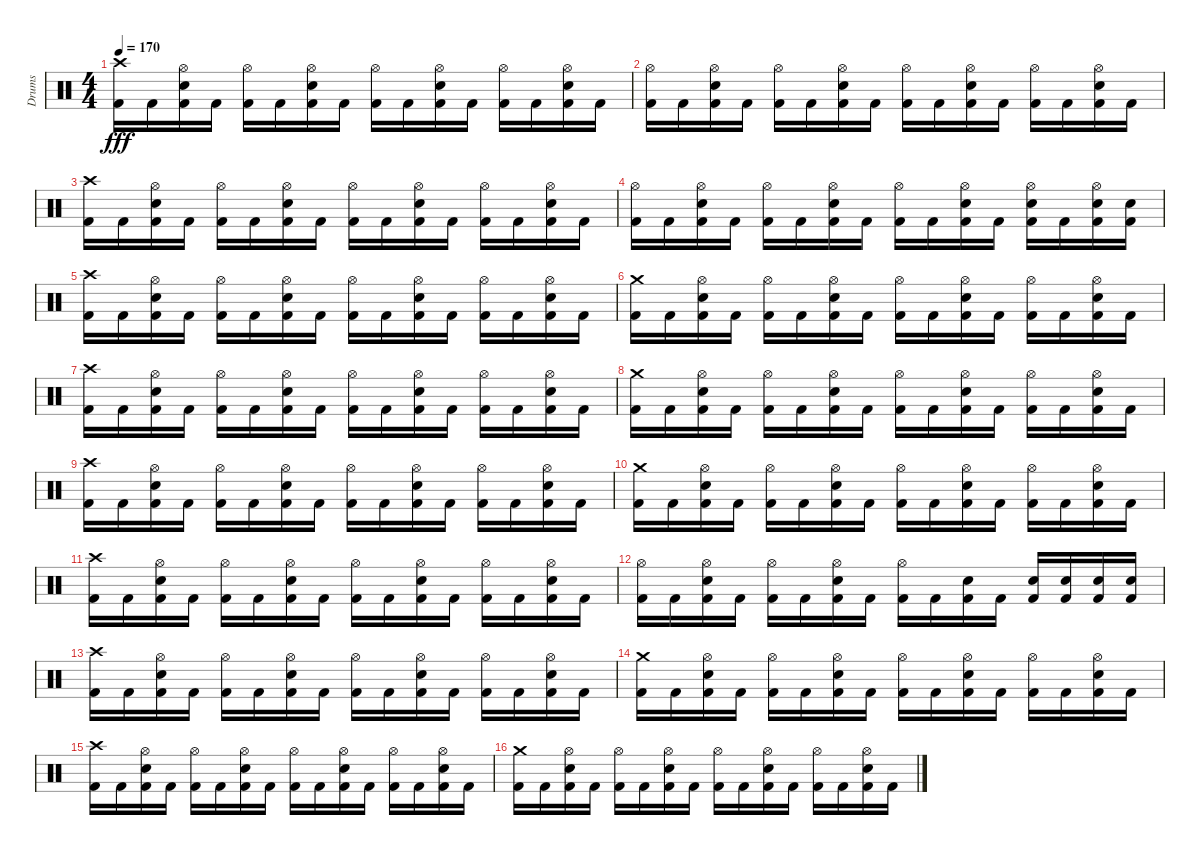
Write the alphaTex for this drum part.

\track ("Drums" "Drums") {instrument percussion}
\staff {score}
\articulation defaults
\ts (4 4)
\tempo 170
\clef neutral
\ks c
("Crash high (hit)" "Kick (hit) 2").16{dy fff} "Kick (hit) 2".16 ("Snare (hit) 2" "Hi-Hat (open)" "Kick (hit) 2").16 "Kick (hit) 2".16 ("Hi-Hat (open)" "Kick (hit) 2").16 "Kick (hit) 2".16 ("Snare (hit) 2" "Hi-Hat (open)" "Kick (hit) 2").16 "Kick (hit) 2".16 ("Hi-Hat (open)" "Kick (hit) 2").16 "Kick (hit) 2".16 ("Snare (hit) 2" "Hi-Hat (open)" "Kick (hit) 2").16 "Kick (hit) 2".16 ("Hi-Hat (open)" "Kick (hit) 2").16 "Kick (hit) 2".16 ("Snare (hit) 2" "Hi-Hat (open)" "Kick (hit) 2").16 "Kick (hit) 2".16 |
("Hi-Hat (open)" "Kick (hit) 2").16 "Kick (hit) 2".16 ("Kick (hit) 2" "Snare (hit) 2" "Hi-Hat (open)").16 "Kick (hit) 2".16 ("Kick (hit) 2" "Hi-Hat (open)").16 "Kick (hit) 2".16 ("Kick (hit) 2" "Snare (hit) 2" "Hi-Hat (open)").16 "Kick (hit) 2".16 ("Kick (hit) 2" "Hi-Hat (open)").16 "Kick (hit) 2".16 ("Kick (hit) 2" "Snare (hit) 2" "Hi-Hat (open)").16 "Kick (hit) 2".16 ("Kick (hit) 2" "Hi-Hat (open)").16 "Kick (hit) 2".16 ("Kick (hit) 2" "Snare (hit) 2" "Hi-Hat (open)").16 "Kick (hit) 2".16 |
("Crash high (hit)" "Kick (hit) 2").16 "Kick (hit) 2".16 ("Snare (hit) 2" "Hi-Hat (open)" "Kick (hit) 2").16 "Kick (hit) 2".16 ("Hi-Hat (open)" "Kick (hit) 2").16 "Kick (hit) 2".16 ("Snare (hit) 2" "Hi-Hat (open)" "Kick (hit) 2").16 "Kick (hit) 2".16 ("Hi-Hat (open)" "Kick (hit) 2").16 "Kick (hit) 2".16 ("Snare (hit) 2" "Hi-Hat (open)" "Kick (hit) 2").16 "Kick (hit) 2".16 ("Hi-Hat (open)" "Kick (hit) 2").16 "Kick (hit) 2".16 ("Snare (hit) 2" "Hi-Hat (open)" "Kick (hit) 2").16 "Kick (hit) 2".16 |
("Hi-Hat (open)" "Kick (hit) 2").16 "Kick (hit) 2".16 ("Kick (hit) 2" "Snare (hit) 2" "Hi-Hat (open)").16 "Kick (hit) 2".16 ("Kick (hit) 2" "Hi-Hat (open)").16 "Kick (hit) 2".16 ("Kick (hit) 2" "Snare (hit) 2" "Hi-Hat (open)").16 "Kick (hit) 2".16 ("Kick (hit) 2" "Hi-Hat (open)").16 "Kick (hit) 2".16 ("Kick (hit) 2" "Snare (hit) 2" "Hi-Hat (open)").16 "Kick (hit) 2".16 ("Snare (hit) 2" "Kick (hit) 2" "Hi-Hat (open)").16 "Kick (hit) 2".16 ("Kick (hit) 2" "Snare (hit) 2" "Hi-Hat (open)").16 ("Snare (hit) 2" "Kick (hit) 2").16 |
("Crash high (hit)" "Kick (hit) 2").16 "Kick (hit) 2".16 ("Snare (hit) 2" "Hi-Hat (open)" "Kick (hit) 2").16 "Kick (hit) 2".16 ("Hi-Hat (open)" "Kick (hit) 2").16 "Kick (hit) 2".16 ("Snare (hit) 2" "Hi-Hat (open)" "Kick (hit) 2").16 "Kick (hit) 2".16 ("Hi-Hat (open)" "Kick (hit) 2").16 "Kick (hit) 2".16 ("Snare (hit) 2" "Hi-Hat (open)" "Kick (hit) 2").16 "Kick (hit) 2".16 ("Hi-Hat (open)" "Kick (hit) 2").16 "Kick (hit) 2".16 ("Snare (hit) 2" "Hi-Hat (open)" "Kick (hit) 2").16 "Kick (hit) 2".16 |
("Crash medium (hit)" "Kick (hit) 2").16 "Kick (hit) 2".16 ("Snare (hit) 2" "Hi-Hat (open)" "Kick (hit) 2").16 "Kick (hit) 2".16 ("Hi-Hat (open)" "Kick (hit) 2").16 "Kick (hit) 2".16 ("Snare (hit) 2" "Hi-Hat (open)" "Kick (hit) 2").16 "Kick (hit) 2".16 ("Hi-Hat (open)" "Kick (hit) 2").16 "Kick (hit) 2".16 ("Snare (hit) 2" "Hi-Hat (open)" "Kick (hit) 2").16 "Kick (hit) 2".16 ("Hi-Hat (open)" "Kick (hit) 2").16 "Kick (hit) 2".16 ("Snare (hit) 2" "Hi-Hat (open)" "Kick (hit) 2").16 "Kick (hit) 2".16 |
("Crash high (hit)" "Kick (hit) 2").16 "Kick (hit) 2".16 ("Snare (hit) 2" "Hi-Hat (open)" "Kick (hit) 2").16 "Kick (hit) 2".16 ("Hi-Hat (open)" "Kick (hit) 2").16 "Kick (hit) 2".16 ("Snare (hit) 2" "Hi-Hat (open)" "Kick (hit) 2").16 "Kick (hit) 2".16 ("Hi-Hat (open)" "Kick (hit) 2").16 "Kick (hit) 2".16 ("Snare (hit) 2" "Hi-Hat (open)" "Kick (hit) 2").16 "Kick (hit) 2".16 ("Hi-Hat (open)" "Kick (hit) 2").16 "Kick (hit) 2".16 ("Snare (hit) 2" "Hi-Hat (open)" "Kick (hit) 2").16 "Kick (hit) 2".16 |
("Crash medium (hit)" "Kick (hit) 2").16 "Kick (hit) 2".16 ("Snare (hit) 2" "Hi-Hat (open)" "Kick (hit) 2").16 "Kick (hit) 2".16 ("Hi-Hat (open)" "Kick (hit) 2").16 "Kick (hit) 2".16 ("Snare (hit) 2" "Hi-Hat (open)" "Kick (hit) 2").16 "Kick (hit) 2".16 ("Hi-Hat (open)" "Kick (hit) 2").16 "Kick (hit) 2".16 ("Snare (hit) 2" "Hi-Hat (open)" "Kick (hit) 2").16 "Kick (hit) 2".16 ("Hi-Hat (open)" "Kick (hit) 2").16 "Kick (hit) 2".16 ("Snare (hit) 2" "Hi-Hat (open)" "Kick (hit) 2").16 "Kick (hit) 2".16 |
("Crash high (hit)" "Kick (hit) 2").16 "Kick (hit) 2".16 ("Snare (hit) 2" "Hi-Hat (open)" "Kick (hit) 2").16 "Kick (hit) 2".16 ("Hi-Hat (open)" "Kick (hit) 2").16 "Kick (hit) 2".16 ("Snare (hit) 2" "Hi-Hat (open)" "Kick (hit) 2").16 "Kick (hit) 2".16 ("Hi-Hat (open)" "Kick (hit) 2").16 "Kick (hit) 2".16 ("Snare (hit) 2" "Hi-Hat (open)" "Kick (hit) 2").16 "Kick (hit) 2".16 ("Hi-Hat (open)" "Kick (hit) 2").16 "Kick (hit) 2".16 ("Snare (hit) 2" "Hi-Hat (open)" "Kick (hit) 2").16 "Kick (hit) 2".16 |
("Crash medium (hit)" "Kick (hit) 2").16 "Kick (hit) 2".16 ("Snare (hit) 2" "Hi-Hat (open)" "Kick (hit) 2").16 "Kick (hit) 2".16 ("Hi-Hat (open)" "Kick (hit) 2").16 "Kick (hit) 2".16 ("Snare (hit) 2" "Hi-Hat (open)" "Kick (hit) 2").16 "Kick (hit) 2".16 ("Hi-Hat (open)" "Kick (hit) 2").16 "Kick (hit) 2".16 ("Snare (hit) 2" "Hi-Hat (open)" "Kick (hit) 2").16 "Kick (hit) 2".16 ("Hi-Hat (open)" "Kick (hit) 2").16 "Kick (hit) 2".16 ("Snare (hit) 2" "Hi-Hat (open)" "Kick (hit) 2").16 "Kick (hit) 2".16 |
("Crash high (hit)" "Kick (hit) 2").16 "Kick (hit) 2".16 ("Snare (hit) 2" "Hi-Hat (open)" "Kick (hit) 2").16 "Kick (hit) 2".16 ("Hi-Hat (open)" "Kick (hit) 2").16 "Kick (hit) 2".16 ("Snare (hit) 2" "Hi-Hat (open)" "Kick (hit) 2").16 "Kick (hit) 2".16 ("Hi-Hat (open)" "Kick (hit) 2").16 "Kick (hit) 2".16 ("Snare (hit) 2" "Hi-Hat (open)" "Kick (hit) 2").16 "Kick (hit) 2".16 ("Hi-Hat (open)" "Kick (hit) 2").16 "Kick (hit) 2".16 ("Snare (hit) 2" "Hi-Hat (open)" "Kick (hit) 2").16 "Kick (hit) 2".16 |
("Hi-Hat (open)" "Kick (hit) 2").16 "Kick (hit) 2".16 ("Hi-Hat (open)" "Snare (hit) 2" "Kick (hit) 2").16 "Kick (hit) 2".16 ("Hi-Hat (open)" "Kick (hit) 2").16 "Kick (hit) 2".16 ("Hi-Hat (open)" "Snare (hit) 2" "Kick (hit) 2").16 "Kick (hit) 2".16 ("Hi-Hat (open)" "Kick (hit) 2").16 "Kick (hit) 2".16 ("Snare (hit) 2" "Kick (hit) 2").16 "Kick (hit) 2".16 ("Snare (hit) 2" "Kick (hit) 2").16 ("Snare (hit) 2" "Kick (hit) 2").16 ("Snare (hit) 2" "Kick (hit) 2").16 ("Snare (hit) 2" "Kick (hit) 2").16 |
("Crash high (hit)" "Kick (hit) 2").16 "Kick (hit) 2".16 ("Snare (hit) 2" "Hi-Hat (open)" "Kick (hit) 2").16 "Kick (hit) 2".16 ("Hi-Hat (open)" "Kick (hit) 2").16 "Kick (hit) 2".16 ("Snare (hit) 2" "Hi-Hat (open)" "Kick (hit) 2").16 "Kick (hit) 2".16 ("Hi-Hat (open)" "Kick (hit) 2").16 "Kick (hit) 2".16 ("Snare (hit) 2" "Hi-Hat (open)" "Kick (hit) 2").16 "Kick (hit) 2".16 ("Hi-Hat (open)" "Kick (hit) 2").16 "Kick (hit) 2".16 ("Snare (hit) 2" "Hi-Hat (open)" "Kick (hit) 2").16 "Kick (hit) 2".16 |
("Crash medium (hit)" "Kick (hit) 2").16 "Kick (hit) 2".16 ("Snare (hit) 2" "Hi-Hat (open)" "Kick (hit) 2").16 "Kick (hit) 2".16 ("Hi-Hat (open)" "Kick (hit) 2").16 "Kick (hit) 2".16 ("Snare (hit) 2" "Hi-Hat (open)" "Kick (hit) 2").16 "Kick (hit) 2".16 ("Hi-Hat (open)" "Kick (hit) 2").16 "Kick (hit) 2".16 ("Snare (hit) 2" "Hi-Hat (open)" "Kick (hit) 2").16 "Kick (hit) 2".16 ("Hi-Hat (open)" "Kick (hit) 2").16 "Kick (hit) 2".16 ("Snare (hit) 2" "Hi-Hat (open)" "Kick (hit) 2").16 "Kick (hit) 2".16 |
("Crash high (hit)" "Kick (hit) 2").16 "Kick (hit) 2".16 ("Snare (hit) 2" "Hi-Hat (open)" "Kick (hit) 2").16 "Kick (hit) 2".16 ("Hi-Hat (open)" "Kick (hit) 2").16 "Kick (hit) 2".16 ("Snare (hit) 2" "Hi-Hat (open)" "Kick (hit) 2").16 "Kick (hit) 2".16 ("Hi-Hat (open)" "Kick (hit) 2").16 "Kick (hit) 2".16 ("Snare (hit) 2" "Hi-Hat (open)" "Kick (hit) 2").16 "Kick (hit) 2".16 ("Hi-Hat (open)" "Kick (hit) 2").16 "Kick (hit) 2".16 ("Snare (hit) 2" "Hi-Hat (open)" "Kick (hit) 2").16 "Kick (hit) 2".16 |
("Crash medium (hit)" "Kick (hit) 2").16 "Kick (hit) 2".16 ("Snare (hit) 2" "Hi-Hat (open)" "Kick (hit) 2").16 "Kick (hit) 2".16 ("Hi-Hat (open)" "Kick (hit) 2").16 "Kick (hit) 2".16 ("Snare (hit) 2" "Hi-Hat (open)" "Kick (hit) 2").16 "Kick (hit) 2".16 ("Hi-Hat (open)" "Kick (hit) 2").16 "Kick (hit) 2".16 ("Snare (hit) 2" "Hi-Hat (open)" "Kick (hit) 2").16 "Kick (hit) 2".16 ("Hi-Hat (open)" "Kick (hit) 2").16 "Kick (hit) 2".16 ("Snare (hit) 2" "Hi-Hat (open)" "Kick (hit) 2").16 "Kick (hit) 2".16
